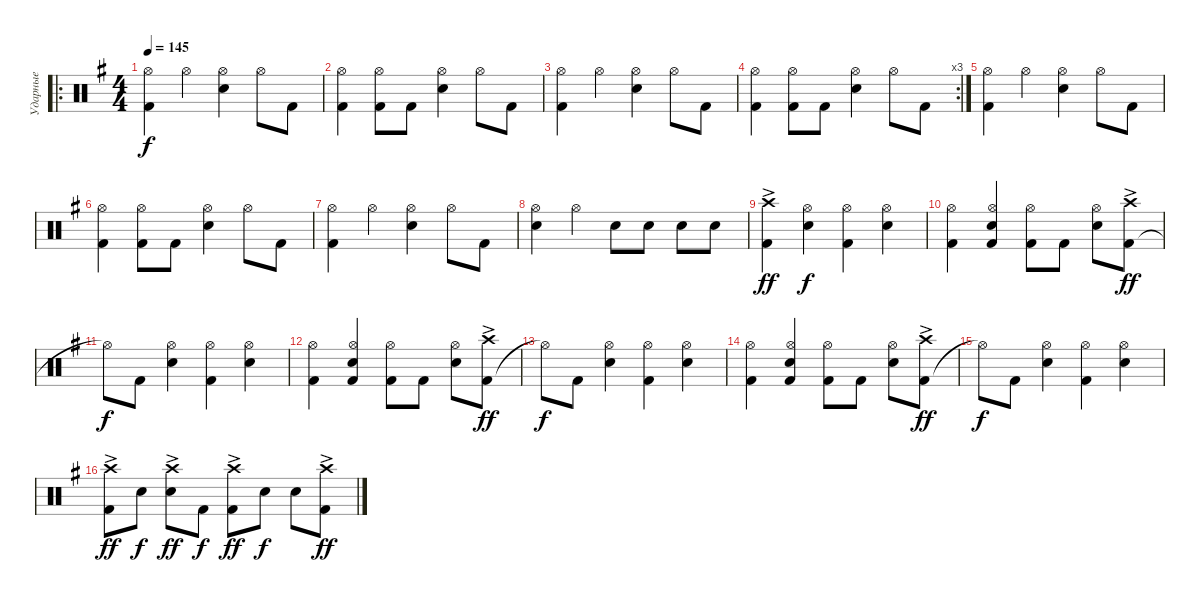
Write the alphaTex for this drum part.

\track ("Ударные" "Ударные") {instrument percussion}
\staff {score}
\articulation defaults
\ro
\ts (4 4)
\tempo 145
\clef neutral
\ks g
("Kick (hit) 2" "Hi-Hat (open)").4{dy f} "Hi-Hat (open)".4 ("Snare (hit) 2" "Hi-Hat (open)").4 "Hi-Hat (open)".8 "Kick (hit) 2".8 |
("Kick (hit) 2" "Hi-Hat (open)").4 ("Kick (hit) 2" "Hi-Hat (open)").8 "Kick (hit) 2".8 ("Snare (hit) 2" "Hi-Hat (open)").4 "Hi-Hat (open)".8 "Kick (hit) 2".8 |
("Kick (hit) 2" "Hi-Hat (open)").4 "Hi-Hat (open)".4 ("Snare (hit) 2" "Hi-Hat (open)").4 "Hi-Hat (open)".8 "Kick (hit) 2".8 |
\rc 3
("Kick (hit) 2" "Hi-Hat (open)").4 ("Kick (hit) 2" "Hi-Hat (open)").8 "Kick (hit) 2".8 ("Snare (hit) 2" "Hi-Hat (open)").4 "Hi-Hat (open)".8 "Kick (hit) 2".8 |
("Kick (hit) 2" "Hi-Hat (open)").4 "Hi-Hat (open)".4 ("Snare (hit) 2" "Hi-Hat (open)").4 "Hi-Hat (open)".8 "Kick (hit) 2".8 |
("Kick (hit) 2" "Hi-Hat (open)").4 ("Kick (hit) 2" "Hi-Hat (open)").8 "Kick (hit) 2".8 ("Snare (hit) 2" "Hi-Hat (open)").4 "Hi-Hat (open)".8 "Kick (hit) 2".8 |
("Kick (hit) 2" "Hi-Hat (open)").4 "Hi-Hat (open)".4 ("Snare (hit) 2" "Hi-Hat (open)").4 "Hi-Hat (open)".8 "Kick (hit) 2".8 |
("Snare (hit) 2" "Hi-Hat (open)").4 "Hi-Hat (open)".4 "Snare (hit) 2".8 "Snare (hit) 2".8 "Snare (hit) 2".8 "Snare (hit) 2".8 |
("Kick (hit) 2" "Crash high (hit)"{ac}).4{dy ff} ("Snare (hit) 2" "Hi-Hat (open)").4{dy f} ("Kick (hit) 2" "Hi-Hat (open)").4 ("Snare (hit) 2" "Hi-Hat (open)").4 |
("Kick (hit) 2" "Hi-Hat (open)").4 ("Kick (hit) 2" "Snare (hit) 2" "Hi-Hat (open)").4 ("Kick (hit) 2" "Hi-Hat (open)").8 "Kick (hit) 2".8 ("Snare (hit) 2" "Hi-Hat (open)").8 ("Kick (hit) 2" "Crash high (hit)"{ac}).8{dy ff} |
"Hi-Hat (open)"{t}.8{dy f} "Kick (hit) 2".8 ("Snare (hit) 2" "Hi-Hat (open)").4 ("Kick (hit) 2" "Hi-Hat (open)").4 ("Snare (hit) 2" "Hi-Hat (open)").4 |
("Kick (hit) 2" "Hi-Hat (open)").4 ("Kick (hit) 2" "Snare (hit) 2" "Hi-Hat (open)").4 ("Kick (hit) 2" "Hi-Hat (open)").8 "Kick (hit) 2".8 ("Snare (hit) 2" "Hi-Hat (open)").8 ("Kick (hit) 2" "Crash high (hit)"{ac}).8{dy ff} |
"Hi-Hat (open)"{t}.8{dy f} "Kick (hit) 2".8 ("Snare (hit) 2" "Hi-Hat (open)").4 ("Kick (hit) 2" "Hi-Hat (open)").4 ("Snare (hit) 2" "Hi-Hat (open)").4 |
("Kick (hit) 2" "Hi-Hat (open)").4 ("Kick (hit) 2" "Snare (hit) 2" "Hi-Hat (open)").4 ("Kick (hit) 2" "Hi-Hat (open)").8 "Kick (hit) 2".8 ("Snare (hit) 2" "Hi-Hat (open)").8 ("Kick (hit) 2" "Crash high (hit)"{ac}).8{dy ff} |
"Hi-Hat (open)"{t}.8{dy f} "Kick (hit) 2".8 ("Snare (hit) 2" "Hi-Hat (open)").4 ("Kick (hit) 2" "Hi-Hat (open)").4 ("Snare (hit) 2" "Hi-Hat (open)").4 |
("Kick (hit) 2" "Crash high (hit)"{ac}).8{dy ff} "Snare (hit) 2".8{dy f} ("Snare (hit) 2" "Crash high (hit)"{ac}).8{dy ff} "Kick (hit) 2".8{dy f} ("Kick (hit) 2" "Crash high (hit)"{ac}).8{dy ff} "Snare (hit) 2".8{dy f} "Snare (hit) 2".8 ("Kick (hit) 2" "Crash high (hit)"{ac}).8{dy ff}
